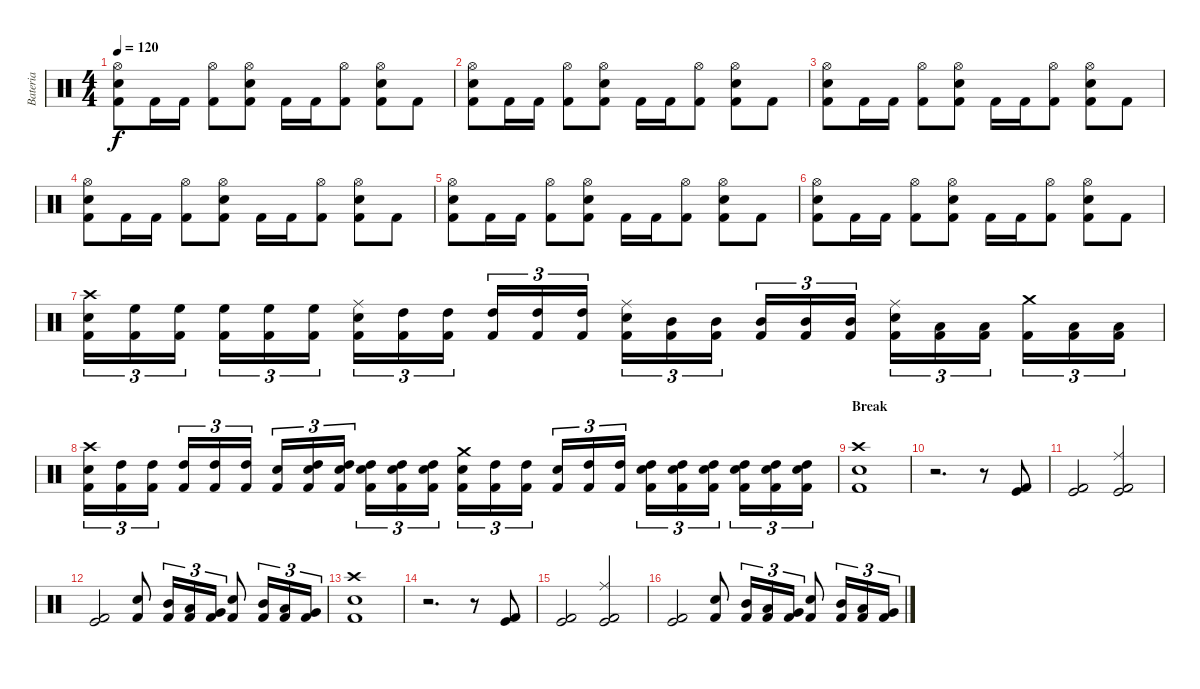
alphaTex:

\track ("Bateria" "Bateria") {instrument percussion}
\staff {score}
\articulation defaults
\ts (4 4)
\tempo 120
\clef neutral
\ks c
("Hi-Hat (open)" "Snare (hit) 2" "Kick (hit) 2").8{dy f} "Kick (hit) 2".16 "Kick (hit) 2".16 ("Hi-Hat (open)" "Kick (hit) 2").8 ("Hi-Hat (open)" "Snare (hit) 2" "Kick (hit) 2").8 "Kick (hit) 2".16 "Kick (hit) 2".16 ("Hi-Hat (open)" "Kick (hit) 2").8 ("Hi-Hat (open)" "Snare (hit) 2" "Kick (hit) 2").8 "Kick (hit) 2".8 |
("Hi-Hat (open)" "Snare (hit) 2" "Kick (hit) 2").8 "Kick (hit) 2".16 "Kick (hit) 2".16 ("Hi-Hat (open)" "Kick (hit) 2").8 ("Hi-Hat (open)" "Snare (hit) 2" "Kick (hit) 2").8 "Kick (hit) 2".16 "Kick (hit) 2".16 ("Hi-Hat (open)" "Kick (hit) 2").8 ("Hi-Hat (open)" "Snare (hit) 2" "Kick (hit) 2").8 "Kick (hit) 2".8 |
("Hi-Hat (open)" "Snare (hit) 2" "Kick (hit) 2").8 "Kick (hit) 2".16 "Kick (hit) 2".16 ("Hi-Hat (open)" "Kick (hit) 2").8 ("Hi-Hat (open)" "Snare (hit) 2" "Kick (hit) 2").8 "Kick (hit) 2".16 "Kick (hit) 2".16 ("Hi-Hat (open)" "Kick (hit) 2").8 ("Hi-Hat (open)" "Snare (hit) 2" "Kick (hit) 2").8 "Kick (hit) 2".8 |
("Hi-Hat (open)" "Snare (hit) 2" "Kick (hit) 2").8 "Kick (hit) 2".16 "Kick (hit) 2".16 ("Hi-Hat (open)" "Kick (hit) 2").8 ("Hi-Hat (open)" "Snare (hit) 2" "Kick (hit) 2").8 "Kick (hit) 2".16 "Kick (hit) 2".16 ("Hi-Hat (open)" "Kick (hit) 2").8 ("Hi-Hat (open)" "Snare (hit) 2" "Kick (hit) 2").8 "Kick (hit) 2".8 |
("Hi-Hat (open)" "Snare (hit) 2" "Kick (hit) 2").8 "Kick (hit) 2".16 "Kick (hit) 2".16 ("Hi-Hat (open)" "Kick (hit) 2").8 ("Hi-Hat (open)" "Snare (hit) 2" "Kick (hit) 2").8 "Kick (hit) 2".16 "Kick (hit) 2".16 ("Hi-Hat (open)" "Kick (hit) 2").8 ("Hi-Hat (open)" "Snare (hit) 2" "Kick (hit) 2").8 "Kick (hit) 2".8 |
("Hi-Hat (open)" "Snare (hit) 2" "Kick (hit) 2").8 "Kick (hit) 2".16 "Kick (hit) 2".16 ("Hi-Hat (open)" "Kick (hit) 2").8 ("Hi-Hat (open)" "Snare (hit) 2" "Kick (hit) 2").8 "Kick (hit) 2".16 "Kick (hit) 2".16 ("Hi-Hat (open)" "Kick (hit) 2").8 ("Hi-Hat (open)" "Snare (hit) 2" "Kick (hit) 2").8 "Kick (hit) 2".8 |
("Crash high (hit)" "Snare (hit) 2" "Kick (hit) 2").16{tu (3 2)} ("High Floor Tom (hit)" "Kick (hit) 2").16{tu (3 2)} ("High Floor Tom (hit)" "Kick (hit) 2").16{tu (3 2)} ("High Floor Tom (hit)" "Kick (hit) 2").16{tu (3 2)} ("High Floor Tom (hit)" "Kick (hit) 2").16{tu (3 2)} ("High Floor Tom (hit)" "Kick (hit) 2").16{tu (3 2)} ("Ride (middle)" "Snare (hit) 2" "Kick (hit) 2").16{tu (3 2)} ("High Tom (hit)" "Kick (hit) 2").16{tu (3 2)} ("High Tom (hit)" "Kick (hit) 2").16{tu (3 2)} ("High Tom (hit)" "Kick (hit) 2").16{tu (3 2)} ("High Tom (hit)" "Kick (hit) 2").16{tu (3 2)} ("High Tom (hit)" "Kick (hit) 2").16{tu (3 2)} ("Ride (middle)" "Snare (hit) 2" "Kick (hit) 2").16{tu (3 2)} ("Mid Tom (hit)" "Kick (hit) 2").16{tu (3 2)} ("Mid Tom (hit)" "Kick (hit) 2").16{tu (3 2)} ("Mid Tom (hit)" "Kick (hit) 2").16{tu (3 2)} ("Mid Tom (hit)" "Kick (hit) 2").16{tu (3 2)} ("Mid Tom (hit)" "Kick (hit) 2").16{tu (3 2)} ("Ride (middle)" "Snare (hit) 2" "Kick (hit) 2").16{tu (3 2)} ("Low Tom (hit)" "Kick (hit) 2").16{tu (3 2)} ("Low Tom (hit)" "Kick (hit) 2").16{tu (3 2)} ("Crash medium (hit)" "Kick (hit) 2").16{tu (3 2)} ("Low Tom (hit)" "Kick (hit) 2").16{tu (3 2)} ("Low Tom (hit)" "Kick (hit) 2").16{tu (3 2)} |
("Crash high (hit)" "Snare (hit) 2" "Kick (hit) 2").16{tu (3 2)} ("High Tom (hit)" "Kick (hit) 2").16{tu (3 2)} ("High Tom (hit)" "Kick (hit) 2").16{tu (3 2)} ("High Tom (hit)" "Kick (hit) 2").16{tu (3 2)} ("High Tom (hit)" "Kick (hit) 2").16{tu (3 2)} ("High Tom (hit)" "Kick (hit) 2").16{tu (3 2)} ("Snare (hit) 2" "Kick (hit) 2").16{tu (3 2)} ("High Tom (hit)" "Snare (hit) 2" "Kick (hit) 2").16{tu (3 2)} ("High Tom (hit)" "Snare (hit) 2" "Kick (hit) 2").16{tu (3 2)} ("High Tom (hit)" "Snare (hit) 2" "Kick (hit) 2").16{tu (3 2)} ("High Tom (hit)" "Snare (hit) 2" "Kick (hit) 2").16{tu (3 2)} ("High Tom (hit)" "Snare (hit) 2" "Kick (hit) 2").16{tu (3 2)} ("Crash medium (hit)" "Snare (hit) 2" "Kick (hit) 2").16{tu (3 2)} ("High Tom (hit)" "Kick (hit) 2").16{tu (3 2)} ("High Tom (hit)" "Kick (hit) 2").16{tu (3 2)} ("Snare (hit) 2" "Kick (hit) 2").16{tu (3 2)} ("High Tom (hit)" "Kick (hit) 2").16{tu (3 2)} ("High Tom (hit)" "Kick (hit) 2").16{tu (3 2)} ("High Tom (hit)" "Snare (hit) 2" "Kick (hit) 2").16{tu (3 2)} ("High Tom (hit)" "Snare (hit) 2" "Kick (hit) 2").16{tu (3 2)} ("High Tom (hit)" "Snare (hit) 2" "Kick (hit) 2").16{tu (3 2)} ("High Tom (hit)" "Snare (hit) 2" "Kick (hit) 2").16{tu (3 2)} ("High Tom (hit)" "Snare (hit) 2" "Kick (hit) 2").16{tu (3 2)} ("High Tom (hit)" "Snare (hit) 2" "Kick (hit) 2").16{tu (3 2)} |
\section ("" "Break")
("Crash high (hit)" "Snare (hit) 2" "Kick (hit) 2").1 |
r.2{d} r.8 ("Kick (hit)" "Kick (hit) 2").8 |
("Kick (hit)" "Kick (hit) 2").2 ("Ride (middle)" "Kick (hit)" "Kick (hit) 2").2 |
("Kick (hit)" "Kick (hit) 2").2 ("Electric Snare (hit)" "Kick (hit) 2").8 ("Mid Tom (hit)" "Kick (hit) 2").16{tu (3 2)} ("Low Tom (hit)" "Kick (hit) 2").16{tu (3 2)} ("Very Low Tom (hit)" "Kick (hit) 2").16{tu (3 2)} ("Electric Snare (hit)" "Kick (hit) 2").8 ("Mid Tom (hit)" "Kick (hit) 2").16{tu (3 2)} ("Low Tom (hit)" "Kick (hit) 2").16{tu (3 2)} ("Very Low Tom (hit)" "Kick (hit) 2").16{tu (3 2)} |
("Crash high (hit)" "Snare (hit) 2" "Kick (hit) 2").1 |
r.2{d} r.8 ("Kick (hit)" "Kick (hit) 2").8 |
("Kick (hit)" "Kick (hit) 2").2 ("Ride (middle)" "Kick (hit)" "Kick (hit) 2").2 |
("Kick (hit)" "Kick (hit) 2").2 ("Electric Snare (hit)" "Kick (hit) 2").8 ("Mid Tom (hit)" "Kick (hit) 2").16{tu (3 2)} ("Low Tom (hit)" "Kick (hit) 2").16{tu (3 2)} ("Very Low Tom (hit)" "Kick (hit) 2").16{tu (3 2)} ("Electric Snare (hit)" "Kick (hit) 2").8 ("Mid Tom (hit)" "Kick (hit) 2").16{tu (3 2)} ("Low Tom (hit)" "Kick (hit) 2").16{tu (3 2)} ("Very Low Tom (hit)" "Kick (hit) 2").16{tu (3 2)}
